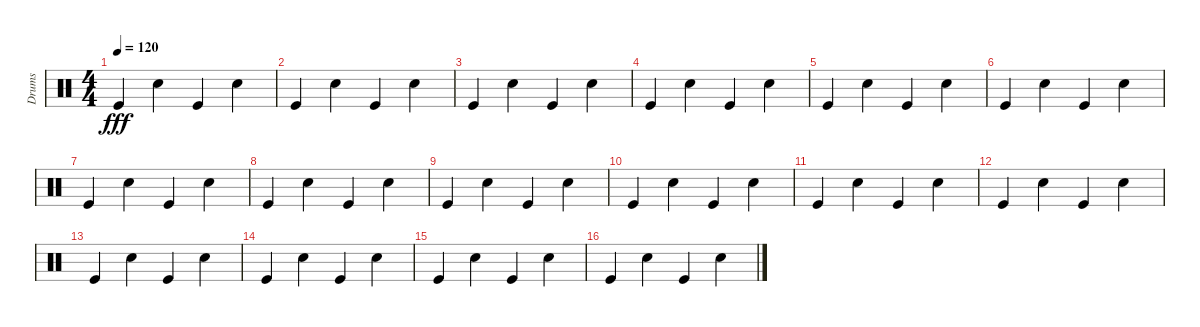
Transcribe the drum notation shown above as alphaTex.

\track ("Drums" "Drums") {instrument percussion}
\staff {score}
\articulation defaults
\ts (4 4)
\tempo 120
\clef neutral
\ks c "Kick (hit)".4{dy fff} "Snare (hit) 2".4 "Kick (hit)".4 "Snare (hit) 2".4
|
"Kick (hit)".4 "Snare (hit) 2".4 "Kick (hit)".4 "Snare (hit) 2".4 |
"Kick (hit)".4 "Snare (hit) 2".4 "Kick (hit)".4 "Snare (hit) 2".4 |
"Kick (hit)".4 "Snare (hit) 2".4 "Kick (hit)".4 "Snare (hit) 2".4 |
"Kick (hit)".4 "Snare (hit) 2".4 "Kick (hit)".4 "Snare (hit) 2".4 |
"Kick (hit)".4 "Snare (hit) 2".4 "Kick (hit)".4 "Snare (hit) 2".4 |
"Kick (hit)".4 "Snare (hit) 2".4 "Kick (hit)".4 "Snare (hit) 2".4 |
"Kick (hit)".4 "Snare (hit) 2".4 "Kick (hit)".4 "Snare (hit) 2".4 |
"Kick (hit)".4 "Snare (hit) 2".4 "Kick (hit)".4 "Snare (hit) 2".4 |
"Kick (hit)".4 "Snare (hit) 2".4 "Kick (hit)".4 "Snare (hit) 2".4 |
"Kick (hit)".4 "Snare (hit) 2".4 "Kick (hit)".4 "Snare (hit) 2".4 |
"Kick (hit)".4 "Snare (hit) 2".4 "Kick (hit)".4 "Snare (hit) 2".4 |
"Kick (hit)".4 "Snare (hit) 2".4 "Kick (hit)".4 "Snare (hit) 2".4 |
"Kick (hit)".4 "Snare (hit) 2".4 "Kick (hit)".4 "Snare (hit) 2".4 |
"Kick (hit)".4 "Snare (hit) 2".4 "Kick (hit)".4 "Snare (hit) 2".4 |
"Kick (hit)".4 "Snare (hit) 2".4 "Kick (hit)".4 "Snare (hit) 2".4
